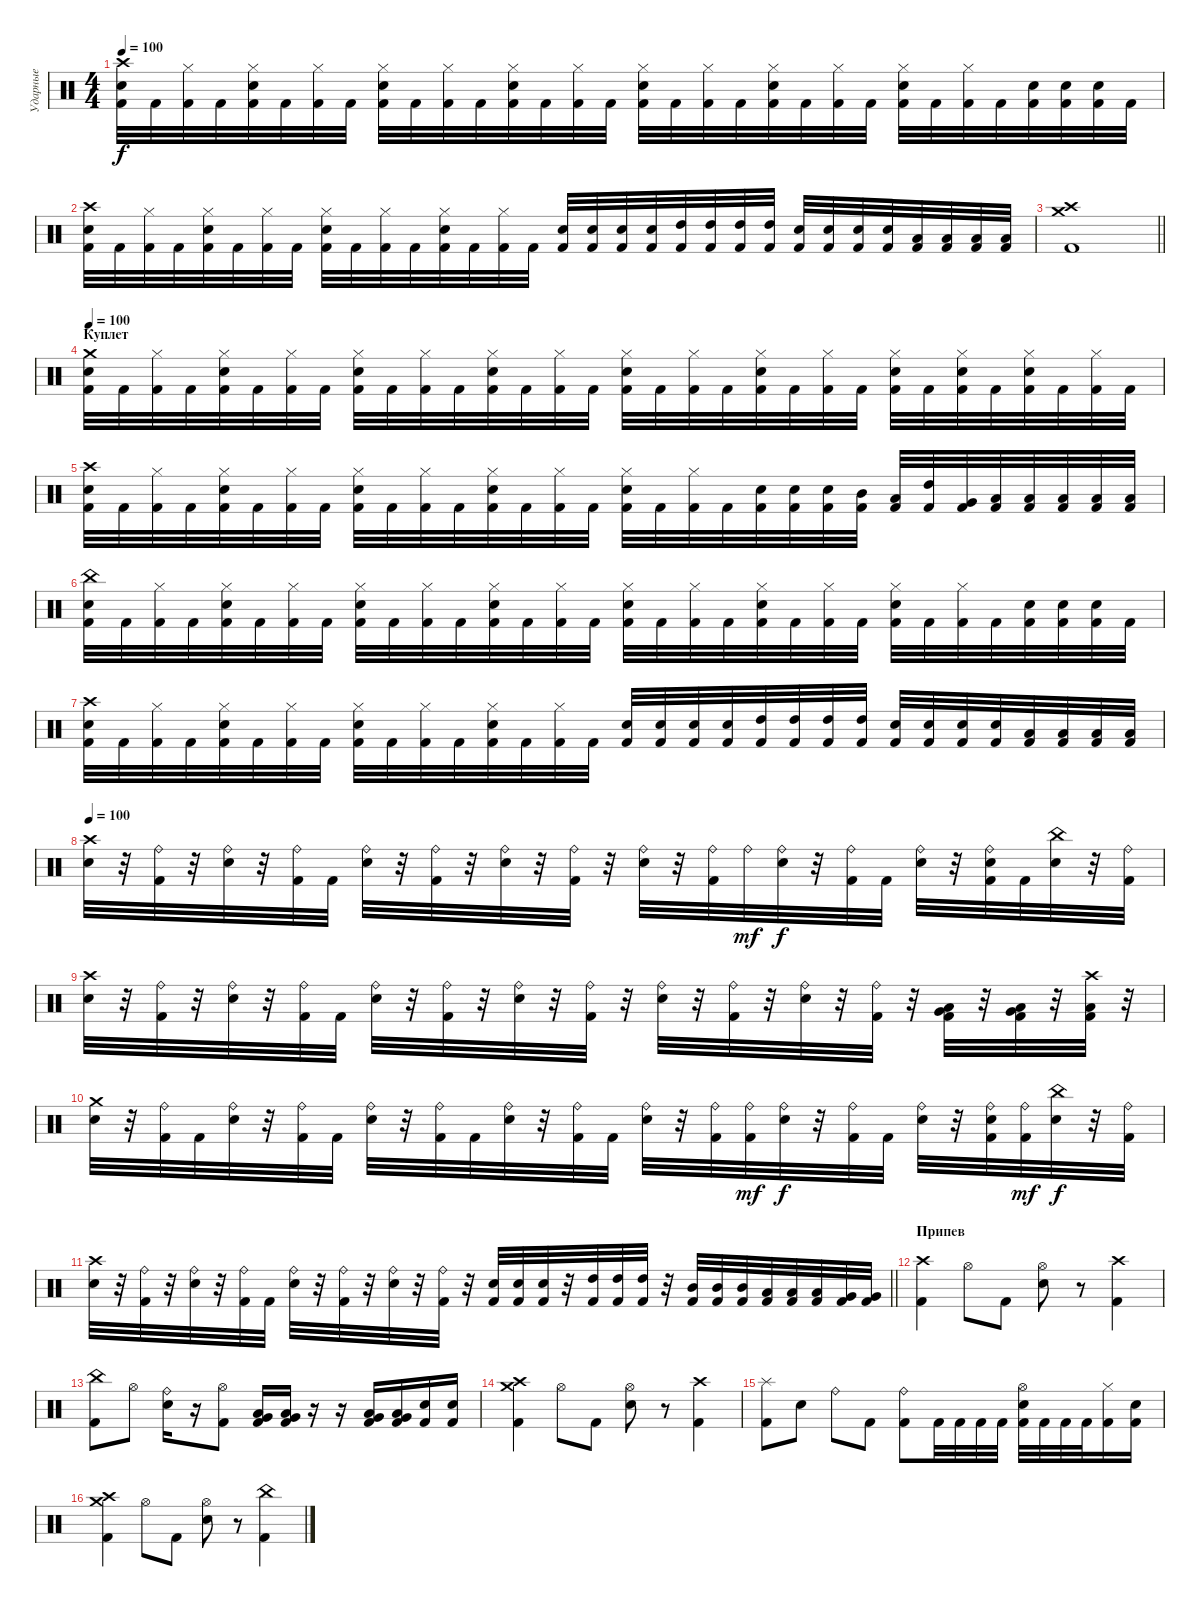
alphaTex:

\track ("Ударные" "Ударные") {instrument percussion}
\staff {score}
\articulation defaults
\ts (4 4)
\tempo 100
\clef neutral
\ks c
("Crash high (hit)" "Snare (hit) 2" "Kick (hit) 2").32{dy f} "Kick (hit) 2".32 ("Hi-Hat (closed)" "Kick (hit) 2").32 "Kick (hit) 2".32 ("Hi-Hat (closed)" "Snare (hit) 2" "Kick (hit) 2").32 "Kick (hit) 2".32 ("Hi-Hat (closed)" "Kick (hit) 2").32 "Kick (hit) 2".32 ("Hi-Hat (closed)" "Snare (hit) 2" "Kick (hit) 2").32 "Kick (hit) 2".32 ("Hi-Hat (closed)" "Kick (hit) 2").32 "Kick (hit) 2".32 ("Hi-Hat (closed)" "Snare (hit) 2" "Kick (hit) 2").32 "Kick (hit) 2".32 ("Hi-Hat (closed)" "Kick (hit) 2").32 "Kick (hit) 2".32 ("Hi-Hat (closed)" "Snare (hit) 2" "Kick (hit) 2").32 "Kick (hit) 2".32 ("Hi-Hat (closed)" "Kick (hit) 2").32 "Kick (hit) 2".32 ("Hi-Hat (closed)" "Snare (hit) 2" "Kick (hit) 2").32 "Kick (hit) 2".32 ("Hi-Hat (closed)" "Kick (hit) 2").32 "Kick (hit) 2".32 ("Hi-Hat (closed)" "Snare (hit) 2" "Kick (hit) 2").32 "Kick (hit) 2".32 ("Hi-Hat (closed)" "Kick (hit) 2").32 "Kick (hit) 2".32 ("Snare (hit) 2" "Kick (hit) 2").32 ("Snare (hit) 2" "Kick (hit) 2").32 ("Snare (hit) 2" "Kick (hit) 2").32 "Kick (hit) 2".32 |
("Crash high (hit)" "Snare (hit) 2" "Kick (hit) 2").32 "Kick (hit) 2".32 ("Hi-Hat (closed)" "Kick (hit) 2").32 "Kick (hit) 2".32 ("Hi-Hat (closed)" "Snare (hit) 2" "Kick (hit) 2").32 "Kick (hit) 2".32 ("Hi-Hat (closed)" "Kick (hit) 2").32 "Kick (hit) 2".32 ("Hi-Hat (closed)" "Snare (hit) 2" "Kick (hit) 2").32 "Kick (hit) 2".32 ("Hi-Hat (closed)" "Kick (hit) 2").32 "Kick (hit) 2".32 ("Hi-Hat (closed)" "Snare (hit) 2" "Kick (hit) 2").32 "Kick (hit) 2".32 ("Hi-Hat (closed)" "Kick (hit) 2").32 "Kick (hit) 2".32 ("Snare (hit) 2" "Kick (hit) 2").32 ("Snare (hit) 2" "Kick (hit) 2").32 ("Snare (hit) 2" "Kick (hit) 2").32 ("Snare (hit) 2" "Kick (hit) 2").32 ("High Tom (hit)" "Kick (hit) 2").32 ("High Tom (hit)" "Kick (hit) 2").32 ("High Tom (hit)" "Kick (hit) 2").32 ("High Tom (hit)" "Kick (hit) 2").32 ("Snare (hit) 2" "Kick (hit) 2").32 ("Snare (hit) 2" "Kick (hit) 2").32 ("Snare (hit) 2" "Kick (hit) 2").32 ("Snare (hit) 2" "Kick (hit) 2").32 ("Low Tom (hit)" "Kick (hit) 2").32 ("Low Tom (hit)" "Kick (hit) 2").32 ("Low Floor Tom (hit)" "Kick (hit) 2").32 ("Low Floor Tom (hit)" "Kick (hit) 2").32 |
\barLineRight lightlight
("Crash medium (hit)" "Crash high (hit)" "Kick (hit) 2").1 |
\section ("" "Куплет")
\tempo 100
("Crash medium (hit)" "Snare (hit) 2" "Kick (hit) 2").32 "Kick (hit) 2".32 ("Hi-Hat (closed)" "Kick (hit) 2").32 "Kick (hit) 2".32 ("Hi-Hat (closed)" "Snare (hit) 2" "Kick (hit) 2").32 "Kick (hit) 2".32 ("Hi-Hat (closed)" "Kick (hit) 2").32 "Kick (hit) 2".32 ("Hi-Hat (closed)" "Snare (hit) 2" "Kick (hit) 2").32 "Kick (hit) 2".32 ("Hi-Hat (closed)" "Kick (hit) 2").32 "Kick (hit) 2".32 ("Hi-Hat (closed)" "Snare (hit) 2" "Kick (hit) 2").32 "Kick (hit) 2".32 ("Hi-Hat (closed)" "Kick (hit) 2").32 "Kick (hit) 2".32 ("Hi-Hat (closed)" "Snare (hit) 2" "Kick (hit) 2").32 "Kick (hit) 2".32 ("Hi-Hat (closed)" "Kick (hit) 2").32 "Kick (hit) 2".32 ("Hi-Hat (closed)" "Snare (hit) 2" "Kick (hit) 2").32 "Kick (hit) 2".32 ("Hi-Hat (closed)" "Kick (hit) 2").32 "Kick (hit) 2".32 ("Hi-Hat (closed)" "Snare (hit) 2" "Kick (hit) 2").32 "Kick (hit) 2".32 ("Hi-Hat (closed)" "Snare (hit) 2" "Kick (hit) 2").32 "Kick (hit) 2".32 ("Hi-Hat (closed)" "Snare (hit) 2" "Kick (hit) 2").32 "Kick (hit) 2".32 ("Hi-Hat (closed)" "Kick (hit) 2").32 "Kick (hit) 2".32 |
("Crash high (hit)" "Snare (hit) 2" "Kick (hit) 2").32 "Kick (hit) 2".32 ("Hi-Hat (closed)" "Kick (hit) 2").32 "Kick (hit) 2".32 ("Hi-Hat (closed)" "Snare (hit) 2" "Kick (hit) 2").32 "Kick (hit) 2".32 ("Hi-Hat (closed)" "Kick (hit) 2").32 "Kick (hit) 2".32 ("Hi-Hat (closed)" "Snare (hit) 2" "Kick (hit) 2").32 "Kick (hit) 2".32 ("Hi-Hat (closed)" "Kick (hit) 2").32 "Kick (hit) 2".32 ("Hi-Hat (closed)" "Snare (hit) 2" "Kick (hit) 2").32 "Kick (hit) 2".32 ("Hi-Hat (closed)" "Kick (hit) 2").32 "Kick (hit) 2".32 ("Hi-Hat (closed)" "Snare (hit) 2" "Kick (hit) 2").32 "Kick (hit) 2".32 ("Hi-Hat (closed)" "Kick (hit) 2").32 "Kick (hit) 2".32 ("Snare (hit) 2" "Kick (hit) 2").32 ("Snare (hit) 2" "Kick (hit) 2").32 ("Snare (hit) 2" "Kick (hit) 2").32 ("Mid Tom (hit)" "Kick (hit) 2").32 ("Low Tom (hit)" "Kick (hit) 2").32 ("High Tom (hit)" "Kick (hit) 2").32 ("Very Low Tom (hit)" "Kick (hit) 2").32 ("Low Floor Tom (hit)" "Kick (hit) 2").32 ("Low Tom (hit)" "Kick (hit) 2").32 ("Low Tom (hit)" "Kick (hit) 2").32 ("Low Tom (hit)" "Kick (hit) 2").32 ("Low Tom (hit)" "Kick (hit) 2").32 |
("China (hit)" "Snare (hit) 2" "Kick (hit) 2").32 "Kick (hit) 2".32 ("Hi-Hat (closed)" "Kick (hit) 2").32 "Kick (hit) 2".32 ("Hi-Hat (closed)" "Snare (hit) 2" "Kick (hit) 2").32 "Kick (hit) 2".32 ("Hi-Hat (closed)" "Kick (hit) 2").32 "Kick (hit) 2".32 ("Hi-Hat (closed)" "Snare (hit) 2" "Kick (hit) 2").32 "Kick (hit) 2".32 ("Hi-Hat (closed)" "Kick (hit) 2").32 "Kick (hit) 2".32 ("Hi-Hat (closed)" "Snare (hit) 2" "Kick (hit) 2").32 "Kick (hit) 2".32 ("Hi-Hat (closed)" "Kick (hit) 2").32 "Kick (hit) 2".32 ("Hi-Hat (closed)" "Snare (hit) 2" "Kick (hit) 2").32 "Kick (hit) 2".32 ("Hi-Hat (closed)" "Kick (hit) 2").32 "Kick (hit) 2".32 ("Hi-Hat (closed)" "Snare (hit) 2" "Kick (hit) 2").32 "Kick (hit) 2".32 ("Hi-Hat (closed)" "Kick (hit) 2").32 "Kick (hit) 2".32 ("Hi-Hat (closed)" "Snare (hit) 2" "Kick (hit) 2").32 "Kick (hit) 2".32 ("Hi-Hat (closed)" "Kick (hit) 2").32 "Kick (hit) 2".32 ("Snare (hit) 2" "Kick (hit) 2").32 ("Snare (hit) 2" "Kick (hit) 2").32 ("Snare (hit) 2" "Kick (hit) 2").32 "Kick (hit) 2".32 |
("Crash high (hit)" "Snare (hit) 2" "Kick (hit) 2").32 "Kick (hit) 2".32 ("Hi-Hat (closed)" "Kick (hit) 2").32 "Kick (hit) 2".32 ("Hi-Hat (closed)" "Snare (hit) 2" "Kick (hit) 2").32 "Kick (hit) 2".32 ("Hi-Hat (closed)" "Kick (hit) 2").32 "Kick (hit) 2".32 ("Hi-Hat (closed)" "Snare (hit) 2" "Kick (hit) 2").32 "Kick (hit) 2".32 ("Hi-Hat (closed)" "Kick (hit) 2").32 "Kick (hit) 2".32 ("Hi-Hat (closed)" "Snare (hit) 2" "Kick (hit) 2").32 "Kick (hit) 2".32 ("Hi-Hat (closed)" "Kick (hit) 2").32 "Kick (hit) 2".32 ("Snare (hit) 2" "Kick (hit) 2").32 ("Snare (hit) 2" "Kick (hit) 2").32 ("Snare (hit) 2" "Kick (hit) 2").32 ("Snare (hit) 2" "Kick (hit) 2").32 ("High Tom (hit)" "Kick (hit) 2").32 ("High Tom (hit)" "Kick (hit) 2").32 ("High Tom (hit)" "Kick (hit) 2").32 ("High Tom (hit)" "Kick (hit) 2").32 ("Snare (hit) 2" "Kick (hit) 2").32 ("Snare (hit) 2" "Kick (hit) 2").32 ("Snare (hit) 2" "Kick (hit) 2").32 ("Snare (hit) 2" "Kick (hit) 2").32 ("Low Tom (hit)" "Kick (hit) 2").32 ("Low Tom (hit)" "Kick (hit) 2").32 ("Low Floor Tom (hit)" "Kick (hit) 2").32 ("Low Floor Tom (hit)" "Kick (hit) 2").32 |
\tempo 100
("Crash high (hit)" "Snare (hit) 2").32 r.32 ("Ride (bell)" "Kick (hit) 2").32 r.32 ("Ride (bell)" "Snare (hit) 2").32 r.32 ("Ride (bell)" "Kick (hit) 2").32 "Kick (hit) 2".32 ("Ride (bell)" "Snare (hit) 2").32 r.32 ("Ride (bell)" "Kick (hit) 2").32 r.32 ("Ride (bell)" "Snare (hit) 2").32 r.32 ("Ride (bell)" "Kick (hit) 2").32 r.32 ("Ride (bell)" "Snare (hit) 2").32 r.32 ("Ride (bell)" "Kick (hit) 2").32 "Ride (bell)".32{dy mf} ("Ride (bell)" "Snare (hit) 2").32{dy f} r.32 ("Ride (bell)" "Kick (hit) 2").32 "Kick (hit) 2".32 ("Ride (bell)" "Snare (hit) 2").32 r.32 ("Ride (bell)" "Snare (hit) 2" "Kick (hit) 2").32 "Kick (hit) 2".32 ("China (hit)" "Snare (hit) 2").32 r.32 ("Ride (bell)" "Kick (hit) 2").32 |
("Crash high (hit)" "Snare (hit) 2").32 r.32 ("Ride (bell)" "Kick (hit) 2").32 r.32 ("Ride (bell)" "Snare (hit) 2").32 r.32 ("Ride (bell)" "Kick (hit) 2").32 "Kick (hit) 2".32 ("Ride (bell)" "Snare (hit) 2").32 r.32 ("Ride (bell)" "Kick (hit) 2").32 r.32 ("Ride (bell)" "Snare (hit) 2").32 r.32 ("Ride (bell)" "Kick (hit) 2").32 r.32 ("Ride (bell)" "Snare (hit) 2").32 r.32 ("Ride (bell)" "Kick (hit) 2").32 r.32 ("Ride (bell)" "Snare (hit) 2").32 r.32 ("Ride (bell)" "Kick (hit) 2").32 r.32 ("Low Tom (hit)" "Very Low Tom (hit)" "Kick (hit) 2").32 r.32 ("Low Tom (hit)" "Very Low Tom (hit)" "Kick (hit) 2").32 r.32 ("Crash high (hit)" "Low Floor Tom (hit)" "Kick (hit) 2").32 r.32 |
("Crash medium (hit)" "Snare (hit) 2").32 r.32 ("Ride (bell)" "Kick (hit) 2").32 "Kick (hit) 2".32 ("Ride (bell)" "Snare (hit) 2").32 r.32 ("Ride (bell)" "Kick (hit) 2").32 "Kick (hit) 2".32 ("Ride (bell)" "Snare (hit) 2").32 r.32 ("Ride (bell)" "Kick (hit) 2").32 "Kick (hit) 2".32 ("Ride (bell)" "Snare (hit) 2").32 r.32 ("Ride (bell)" "Kick (hit) 2").32 "Kick (hit) 2".32 ("Ride (bell)" "Snare (hit) 2").32 r.32 ("Ride (bell)" "Kick (hit) 2").32 ("Ride (bell)" "Kick (hit) 2").32{dy mf} ("Ride (bell)" "Snare (hit) 2").32{dy f} r.32 ("Ride (bell)" "Kick (hit) 2").32 "Kick (hit) 2".32 ("Ride (bell)" "Snare (hit) 2").32 r.32 ("Ride (bell)" "Snare (hit) 2" "Kick (hit) 2").32 ("Ride (bell)" "Kick (hit) 2").32{dy mf} ("China (hit)" "Snare (hit) 2").32{dy f} r.32 ("Ride (bell)" "Kick (hit) 2").32 |
\barLineRight lightlight
("Crash high (hit)" "Snare (hit) 2").32 r.32 ("Ride (bell)" "Kick (hit) 2").32 r.32 ("Ride (bell)" "Snare (hit) 2").32 r.32 ("Ride (bell)" "Kick (hit) 2").32 "Kick (hit) 2".32 ("Ride (bell)" "Snare (hit) 2").32 r.32 ("Ride (bell)" "Kick (hit) 2").32 r.32 ("Ride (bell)" "Snare (hit) 2").32 r.32 ("Ride (bell)" "Kick (hit) 2").32 r.32 ("Snare (hit) 2" "Kick (hit) 2").32 ("Snare (hit) 2" "Kick (hit) 2").32 ("Snare (hit) 2" "Kick (hit) 2").32 r.32 ("High Tom (hit)" "Kick (hit) 2").32 ("High Tom (hit)" "Kick (hit) 2").32 ("High Tom (hit)" "Kick (hit) 2").32 r.32 ("Mid Tom (hit)" "Kick (hit) 2").32 ("Mid Tom (hit)" "Kick (hit) 2").32 ("Mid Tom (hit)" "Kick (hit) 2").32 ("Low Tom (hit)" "Kick (hit) 2").32 ("Low Tom (hit)" "Kick (hit) 2").32 ("Low Tom (hit)" "Kick (hit) 2").32 ("Very Low Tom (hit)" "Kick (hit) 2").32 ("Very Low Tom (hit)" "Kick (hit) 2").32 |
\section ("" "Припев")
("Crash high (hit)" "Kick (hit) 2").4 "Hi-Hat (open)".8 "Kick (hit) 2".8 ("Hi-Hat (open)" "Snare (hit) 2").8 r.8 ("Crash high (hit)" "Kick (hit) 2").4 |
("China (hit)" "Kick (hit) 2").8 "Hi-Hat (open)".8 ("Ride (bell)" "Snare (hit) 2").16 r.16 ("Hi-Hat (open)" "Kick (hit) 2").8 ("Low Tom (hit)" "Very Low Tom (hit)" "Kick (hit) 2").16 ("Low Tom (hit)" "Very Low Tom (hit)" "Kick (hit) 2").16 r.16 r.16 ("Low Tom (hit)" "Very Low Tom (hit)" "Kick (hit) 2").16 ("Low Tom (hit)" "Very Low Tom (hit)" "Kick (hit) 2").16 ("Snare (hit) 2" "Kick (hit) 2").16 ("Snare (hit) 2" "Kick (hit) 2").16 |
("Crash medium (hit)" "Crash high (hit)" "Kick (hit) 2").4 "Hi-Hat (open)".8 "Kick (hit) 2".8 ("Hi-Hat (open)" "Snare (hit) 2").8 r.8 ("Crash high (hit)" "Kick (hit) 2").4 |
("Splash (hit)" "Kick (hit) 2").8 "Snare (hit) 2".8 "Ride (bell)".8 "Kick (hit) 2".8 ("Ride (bell)" "Kick (hit) 2").8 "Kick (hit) 2".32 "Kick (hit) 2".32 "Kick (hit) 2".32 "Kick (hit) 2".32 ("Hi-Hat (open)" "Snare (hit) 2" "Kick (hit) 2").32 "Kick (hit) 2".32 "Kick (hit) 2".32 "Kick (hit) 2".32 ("Hi-Hat (closed)" "Kick (hit) 2").16 ("Snare (hit) 2" "Kick (hit) 2").16 |
("Crash medium (hit)" "Crash high (hit)" "Kick (hit) 2").4 "Hi-Hat (open)".8 "Kick (hit) 2".8 ("Hi-Hat (open)" "Snare (hit) 2").8 r.8 ("China (hit)" "Kick (hit) 2").4
